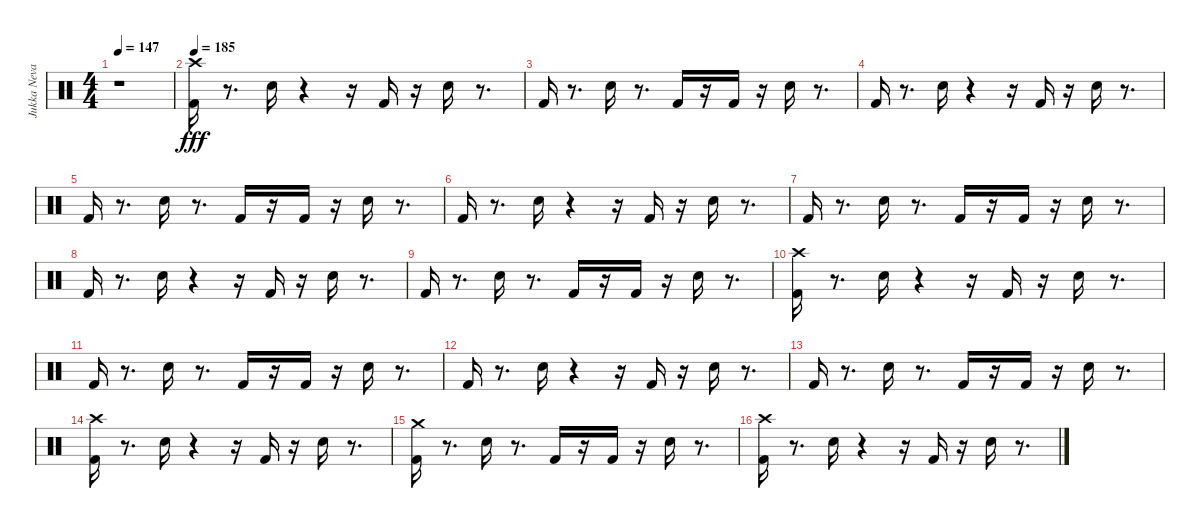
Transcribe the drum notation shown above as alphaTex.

\track ("Jukka Nevalinen" "Jukka Neva") {instrument percussion}
\staff {score}
\articulation defaults
\ts (4 4)
\tempo 147
\clef neutral
\ks c
r.1{dy fff} |
\tempo 185
("Kick (hit) 2" "Crash high (hit)").16 r.8{d} "Snare (hit) 2".16 r.4 r.16 "Kick (hit) 2".16 r.16 "Snare (hit) 2".16 r.8{d} |
"Kick (hit) 2".16 r.8{d} "Snare (hit) 2".16 r.8{d} "Kick (hit) 2".16 r.16 "Kick (hit) 2".16 r.16 "Snare (hit) 2".16 r.8{d} |
"Kick (hit) 2".16 r.8{d} "Snare (hit) 2".16 r.4 r.16 "Kick (hit) 2".16 r.16 "Snare (hit) 2".16 r.8{d} |
"Kick (hit) 2".16 r.8{d} "Snare (hit) 2".16 r.8{d} "Kick (hit) 2".16 r.16 "Kick (hit) 2".16 r.16 "Snare (hit) 2".16 r.8{d} |
"Kick (hit) 2".16 r.8{d} "Snare (hit) 2".16 r.4 r.16 "Kick (hit) 2".16 r.16 "Snare (hit) 2".16 r.8{d} |
"Kick (hit) 2".16 r.8{d} "Snare (hit) 2".16 r.8{d} "Kick (hit) 2".16 r.16 "Kick (hit) 2".16 r.16 "Snare (hit) 2".16 r.8{d} |
"Kick (hit) 2".16 r.8{d} "Snare (hit) 2".16 r.4 r.16 "Kick (hit) 2".16 r.16 "Snare (hit) 2".16 r.8{d} |
"Kick (hit) 2".16 r.8{d} "Snare (hit) 2".16 r.8{d} "Kick (hit) 2".16 r.16 "Kick (hit) 2".16 r.16 "Snare (hit) 2".16 r.8{d} |
("Kick (hit) 2" "Crash high (hit)").16 r.8{d} "Snare (hit) 2".16 r.4 r.16 "Kick (hit) 2".16 r.16 "Snare (hit) 2".16 r.8{d} |
"Kick (hit) 2".16 r.8{d} "Snare (hit) 2".16 r.8{d} "Kick (hit) 2".16 r.16 "Kick (hit) 2".16 r.16 "Snare (hit) 2".16 r.8{d} |
"Kick (hit) 2".16 r.8{d} "Snare (hit) 2".16 r.4 r.16 "Kick (hit) 2".16 r.16 "Snare (hit) 2".16 r.8{d} |
"Kick (hit) 2".16 r.8{d} "Snare (hit) 2".16 r.8{d} "Kick (hit) 2".16 r.16 "Kick (hit) 2".16 r.16 "Snare (hit) 2".16 r.8{d} |
("Kick (hit) 2" "Crash high (hit)").16 r.8{d} "Snare (hit) 2".16 r.4 r.16 "Kick (hit) 2".16 r.16 "Snare (hit) 2".16 r.8{d} |
("Kick (hit) 2" "Crash medium (hit)").16 r.8{d} "Snare (hit) 2".16 r.8{d} "Kick (hit) 2".16 r.16 "Kick (hit) 2".16 r.16 "Snare (hit) 2".16 r.8{d} |
("Kick (hit) 2" "Crash high (hit)").16 r.8{d} "Snare (hit) 2".16 r.4 r.16 "Kick (hit) 2".16 r.16 "Snare (hit) 2".16 r.8{d}
